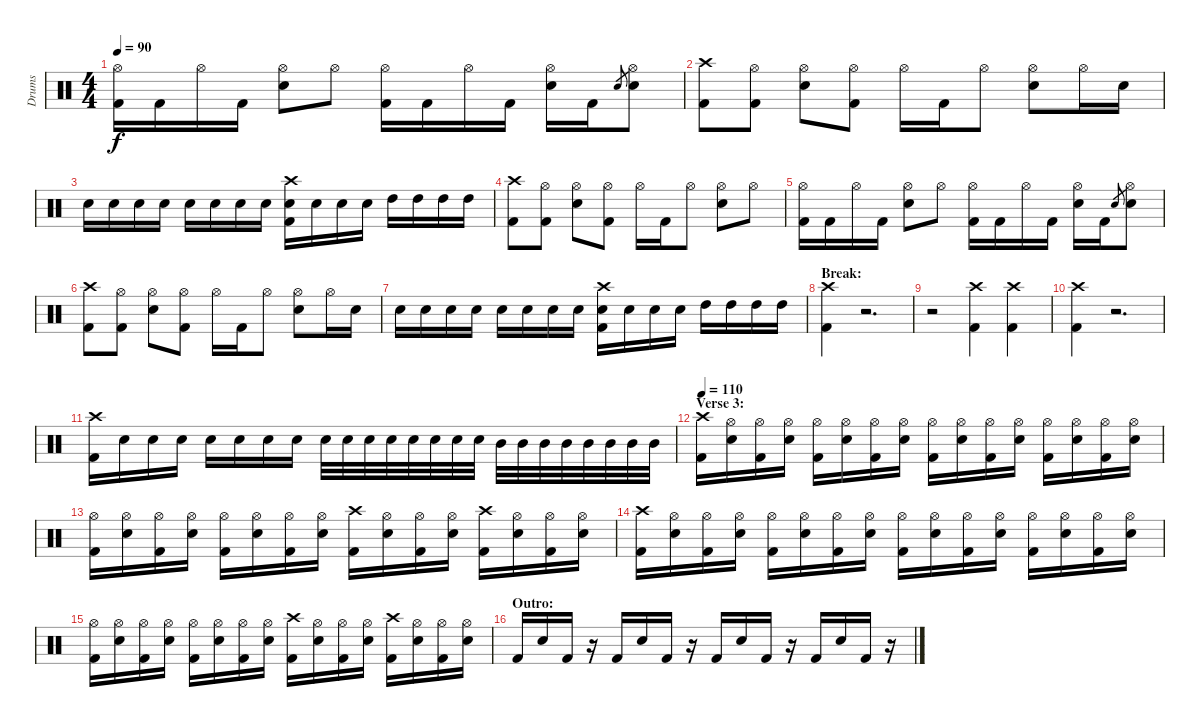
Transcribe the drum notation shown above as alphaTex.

\track ("Drums" "Drums") {instrument percussion}
\staff {score}
\articulation defaults
\ts (4 4)
\tempo 90
\clef neutral
\ks c
("Hi-Hat (open)" "Kick (hit) 2").16{dy f} "Kick (hit) 2".16 "Hi-Hat (open)".16 "Kick (hit) 2".16 ("Hi-Hat (open)" "Electric Snare (hit)").8 "Hi-Hat (open)".8 ("Hi-Hat (open)" "Kick (hit) 2").16 "Kick (hit) 2".16 "Hi-Hat (open)".16 "Kick (hit) 2".16 ("Hi-Hat (open)" "Electric Snare (hit)").16 "Kick (hit) 2".16 "Electric Snare (hit)".8{gr} ("Hi-Hat (open)" "Electric Snare (hit)").8 |
("Crash high (hit)" "Kick (hit) 2").8 ("Hi-Hat (open)" "Kick (hit) 2").8 ("Hi-Hat (open)" "Electric Snare (hit)").8 ("Hi-Hat (open)" "Kick (hit) 2").8 "Hi-Hat (open)".16 "Kick (hit) 2".16 "Hi-Hat (open)".8 ("Hi-Hat (open)" "Electric Snare (hit)").8 "Hi-Hat (open)".16 "Electric Snare (hit)".16 |
"Electric Snare (hit)".16 "Electric Snare (hit)".16 "Electric Snare (hit)".16 "Electric Snare (hit)".16 "Electric Snare (hit)".16 "Electric Snare (hit)".16 "Electric Snare (hit)".16 "Electric Snare (hit)".16 ("Crash high (hit)" "Electric Snare (hit)" "Kick (hit) 2").16 "Electric Snare (hit)".16 "Electric Snare (hit)".16 "Electric Snare (hit)".16 "High Tom (hit)".16 "High Tom (hit)".16 "High Tom (hit)".16 "High Tom (hit)".16 |
("Crash high (hit)" "Kick (hit) 2").8 ("Hi-Hat (open)" "Kick (hit) 2").8 ("Hi-Hat (open)" "Electric Snare (hit)").8 ("Hi-Hat (open)" "Kick (hit) 2").8 "Hi-Hat (open)".16 "Kick (hit) 2".16 "Hi-Hat (open)".8 ("Hi-Hat (open)" "Electric Snare (hit)").8 "Hi-Hat (open)".8 |
("Hi-Hat (open)" "Kick (hit) 2").16 "Kick (hit) 2".16 "Hi-Hat (open)".16 "Kick (hit) 2".16 ("Hi-Hat (open)" "Electric Snare (hit)").8 "Hi-Hat (open)".8 ("Hi-Hat (open)" "Kick (hit) 2").16 "Kick (hit) 2".16 "Hi-Hat (open)".16 "Kick (hit) 2".16 ("Hi-Hat (open)" "Electric Snare (hit)").16 "Kick (hit) 2".16 "Electric Snare (hit)".8{gr} ("Hi-Hat (open)" "Electric Snare (hit)").8 |
("Crash high (hit)" "Kick (hit) 2").8 ("Hi-Hat (open)" "Kick (hit) 2").8 ("Hi-Hat (open)" "Electric Snare (hit)").8 ("Hi-Hat (open)" "Kick (hit) 2").8 "Hi-Hat (open)".16 "Kick (hit) 2".16 "Hi-Hat (open)".8 ("Hi-Hat (open)" "Electric Snare (hit)").8 "Hi-Hat (open)".16 "Electric Snare (hit)".16 |
"Electric Snare (hit)".16 "Electric Snare (hit)".16 "Electric Snare (hit)".16 "Electric Snare (hit)".16 "Electric Snare (hit)".16 "Electric Snare (hit)".16 "Electric Snare (hit)".16 "Electric Snare (hit)".16 ("Crash high (hit)" "Electric Snare (hit)" "Kick (hit) 2").16 "Electric Snare (hit)".16 "Electric Snare (hit)".16 "Electric Snare (hit)".16 "High Tom (hit)".16 "High Tom (hit)".16 "High Tom (hit)".16 "High Tom (hit)".16 |
\section ("" "Break:")
("Crash high (hit)" "Kick (hit) 2").4 r.2{d} |
r.2 ("Crash high (hit)" "Kick (hit) 2").4 ("Crash high (hit)" "Kick (hit) 2").4 |
("Crash high (hit)" "Kick (hit) 2").4 r.2{d} |
("Crash high (hit)" "Kick (hit) 2").16 "Electric Snare (hit)".16 "Electric Snare (hit)".16 "Electric Snare (hit)".16 "Electric Snare (hit)".16 "Electric Snare (hit)".16 "Electric Snare (hit)".16 "Electric Snare (hit)".16 "Electric Snare (hit)".32 "Electric Snare (hit)".32 "Electric Snare (hit)".32 "Electric Snare (hit)".32 "Electric Snare (hit)".32 "Electric Snare (hit)".32 "Electric Snare (hit)".32 "Electric Snare (hit)".32 "Mid Tom (hit)".32 "Mid Tom (hit)".32 "Mid Tom (hit)".32 "Mid Tom (hit)".32 "Mid Tom (hit)".32 "Mid Tom (hit)".32 "Mid Tom (hit)".32 "Mid Tom (hit)".32 |
\section ("" "Verse 3:")
\tempo 110
("Crash high (hit)" "Kick (hit) 2").16 ("Hi-Hat (open)" "Electric Snare (hit)").16 ("Hi-Hat (open)" "Kick (hit) 2").16 ("Hi-Hat (open)" "Electric Snare (hit)").16 ("Hi-Hat (open)" "Kick (hit) 2").16 ("Hi-Hat (open)" "Electric Snare (hit)").16 ("Hi-Hat (open)" "Kick (hit) 2").16 ("Hi-Hat (open)" "Electric Snare (hit)").16 ("Hi-Hat (open)" "Kick (hit) 2").16 ("Hi-Hat (open)" "Electric Snare (hit)").16 ("Hi-Hat (open)" "Kick (hit) 2").16 ("Hi-Hat (open)" "Electric Snare (hit)").16 ("Hi-Hat (open)" "Kick (hit) 2").16 ("Hi-Hat (open)" "Electric Snare (hit)").16 ("Hi-Hat (open)" "Kick (hit) 2").16 ("Hi-Hat (open)" "Electric Snare (hit)").16 |
("Hi-Hat (open)" "Kick (hit) 2").16 ("Hi-Hat (open)" "Electric Snare (hit)").16 ("Hi-Hat (open)" "Kick (hit) 2").16 ("Hi-Hat (open)" "Electric Snare (hit)").16 ("Hi-Hat (open)" "Kick (hit) 2").16 ("Hi-Hat (open)" "Electric Snare (hit)").16 ("Hi-Hat (open)" "Kick (hit) 2").16 ("Hi-Hat (open)" "Electric Snare (hit)").16 ("Crash high (hit)" "Kick (hit) 2").16 ("Hi-Hat (open)" "Electric Snare (hit)").16 ("Hi-Hat (open)" "Kick (hit) 2").16 ("Hi-Hat (open)" "Electric Snare (hit)").16 ("Crash high (hit)" "Kick (hit) 2").16 ("Hi-Hat (open)" "Electric Snare (hit)").16 ("Hi-Hat (open)" "Kick (hit) 2").16 ("Hi-Hat (open)" "Electric Snare (hit)").16 |
("Crash high (hit)" "Kick (hit) 2").16 ("Hi-Hat (open)" "Electric Snare (hit)").16 ("Hi-Hat (open)" "Kick (hit) 2").16 ("Hi-Hat (open)" "Electric Snare (hit)").16 ("Hi-Hat (open)" "Kick (hit) 2").16 ("Hi-Hat (open)" "Electric Snare (hit)").16 ("Hi-Hat (open)" "Kick (hit) 2").16 ("Hi-Hat (open)" "Electric Snare (hit)").16 ("Hi-Hat (open)" "Kick (hit) 2").16 ("Hi-Hat (open)" "Electric Snare (hit)").16 ("Hi-Hat (open)" "Kick (hit) 2").16 ("Hi-Hat (open)" "Electric Snare (hit)").16 ("Hi-Hat (open)" "Kick (hit) 2").16 ("Hi-Hat (open)" "Electric Snare (hit)").16 ("Hi-Hat (open)" "Kick (hit) 2").16 ("Hi-Hat (open)" "Electric Snare (hit)").16 |
("Hi-Hat (open)" "Kick (hit) 2").16 ("Hi-Hat (open)" "Electric Snare (hit)").16 ("Hi-Hat (open)" "Kick (hit) 2").16 ("Hi-Hat (open)" "Electric Snare (hit)").16 ("Hi-Hat (open)" "Kick (hit) 2").16 ("Hi-Hat (open)" "Electric Snare (hit)").16 ("Hi-Hat (open)" "Kick (hit) 2").16 ("Hi-Hat (open)" "Electric Snare (hit)").16 ("Crash high (hit)" "Kick (hit) 2").16 ("Hi-Hat (open)" "Electric Snare (hit)").16 ("Hi-Hat (open)" "Kick (hit) 2").16 ("Hi-Hat (open)" "Electric Snare (hit)").16 ("Crash high (hit)" "Kick (hit) 2").16 ("Hi-Hat (open)" "Electric Snare (hit)").16 ("Hi-Hat (open)" "Kick (hit) 2").16 ("Hi-Hat (open)" "Electric Snare (hit)").16 |
\section ("" "Outro:")
"Kick (hit) 2".16 "Electric Snare (hit)".16 "Kick (hit) 2".16 r.16 "Kick (hit) 2".16 "Electric Snare (hit)".16 "Kick (hit) 2".16 r.16 "Kick (hit) 2".16 "Electric Snare (hit)".16 "Kick (hit) 2".16 r.16 "Kick (hit) 2".16 "Electric Snare (hit)".16 "Kick (hit) 2".16 r.16
